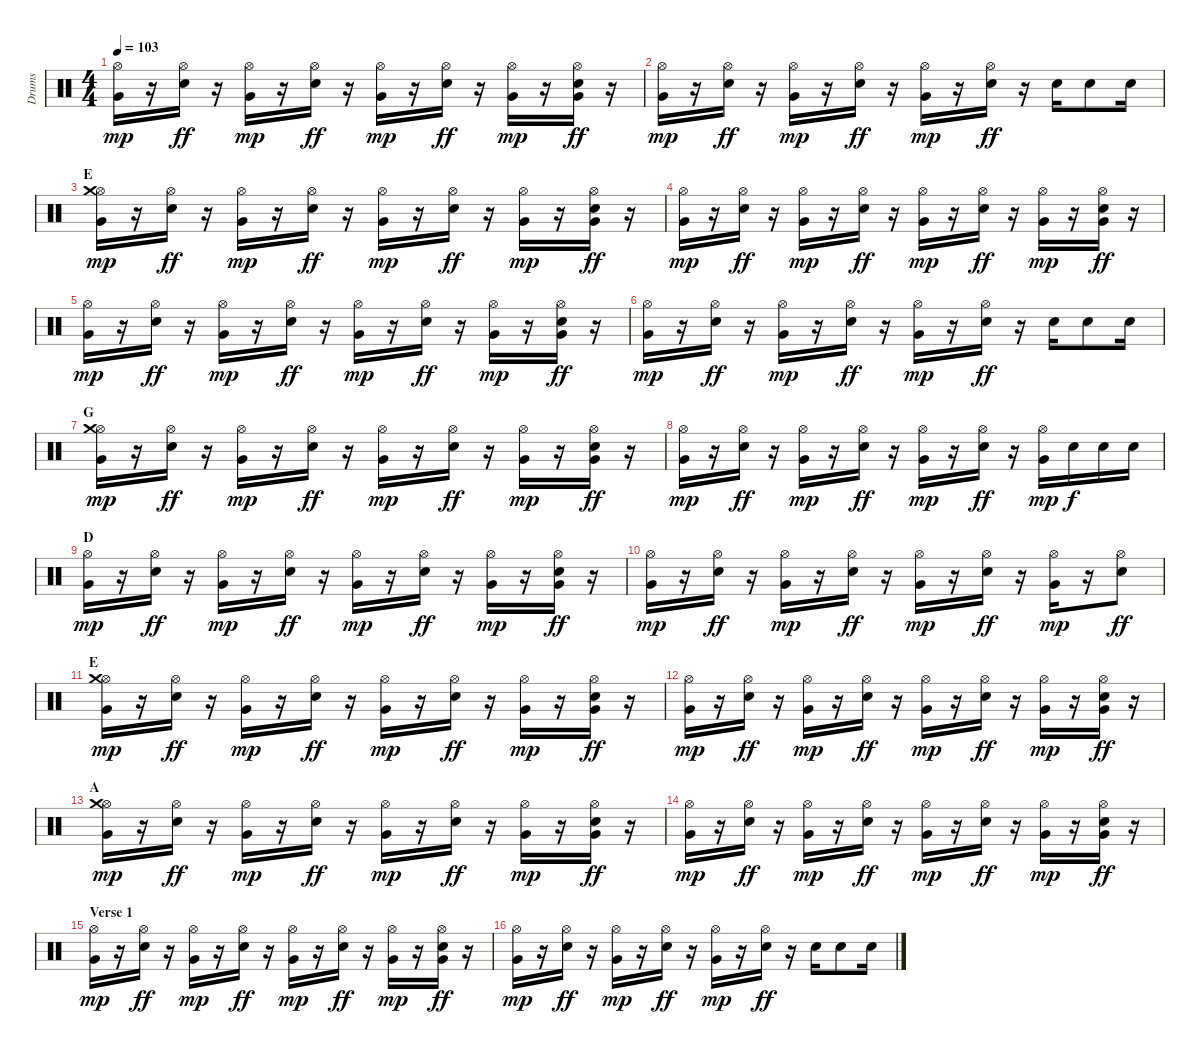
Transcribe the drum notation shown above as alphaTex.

\track ("Drums" "Drums") {instrument percussion}
\staff {score}
\articulation defaults
\ts (4 4)
\tempo 103
\clef neutral
\ks c
("Hi-Hat (open)" "Very Low Tom (hit)").16{dy mp} r.16 ("Hi-Hat (open)" "Electric Snare (hit)").16{dy ff} r.16 ("Hi-Hat (open)" "Very Low Tom (hit)").16{dy mp} r.16 ("Hi-Hat (open)" "Electric Snare (hit)").16{dy ff} r.16 ("Hi-Hat (open)" "Very Low Tom (hit)").16{dy mp} r.16 ("Hi-Hat (open)" "Electric Snare (hit)").16{dy ff} r.16 ("Hi-Hat (open)" "Very Low Tom (hit)").16{dy mp} r.16 ("Hi-Hat (open)" "Electric Snare (hit)" "Very Low Tom (hit)").16{dy ff} r.16 |
("Hi-Hat (open)" "Very Low Tom (hit)").16{dy mp} r.16 ("Hi-Hat (open)" "Electric Snare (hit)").16{dy ff} r.16 ("Hi-Hat (open)" "Very Low Tom (hit)").16{dy mp} r.16 ("Hi-Hat (open)" "Electric Snare (hit)").16{dy ff} r.16 ("Hi-Hat (open)" "Very Low Tom (hit)").16{dy mp} r.16 ("Hi-Hat (open)" "Electric Snare (hit)").16{dy ff} r.16 "Electric Snare (hit)".16 "Electric Snare (hit)".8 "Electric Snare (hit)".16 |
\section ("" "E")
("Hi-Hat (open)" "Crash medium (hit)" "Very Low Tom (hit)").16{dy mp} r.16 ("Hi-Hat (open)" "Electric Snare (hit)").16{dy ff} r.16 ("Hi-Hat (open)" "Very Low Tom (hit)").16{dy mp} r.16 ("Hi-Hat (open)" "Electric Snare (hit)").16{dy ff} r.16 ("Hi-Hat (open)" "Very Low Tom (hit)").16{dy mp} r.16 ("Hi-Hat (open)" "Electric Snare (hit)").16{dy ff} r.16 ("Hi-Hat (open)" "Very Low Tom (hit)").16{dy mp} r.16 ("Hi-Hat (open)" "Electric Snare (hit)" "Very Low Tom (hit)").16{dy ff} r.16 |
("Hi-Hat (open)" "Very Low Tom (hit)").16{dy mp} r.16 ("Hi-Hat (open)" "Electric Snare (hit)").16{dy ff} r.16 ("Hi-Hat (open)" "Very Low Tom (hit)").16{dy mp} r.16 ("Hi-Hat (open)" "Electric Snare (hit)").16{dy ff} r.16 ("Hi-Hat (open)" "Very Low Tom (hit)").16{dy mp} r.16 ("Hi-Hat (open)" "Electric Snare (hit)").16{dy ff} r.16 ("Hi-Hat (open)" "Very Low Tom (hit)").16{dy mp} r.16 ("Hi-Hat (open)" "Electric Snare (hit)" "Very Low Tom (hit)").16{dy ff} r.16 |
("Hi-Hat (open)" "Very Low Tom (hit)").16{dy mp} r.16 ("Hi-Hat (open)" "Electric Snare (hit)").16{dy ff} r.16 ("Hi-Hat (open)" "Very Low Tom (hit)").16{dy mp} r.16 ("Hi-Hat (open)" "Electric Snare (hit)").16{dy ff} r.16 ("Hi-Hat (open)" "Very Low Tom (hit)").16{dy mp} r.16 ("Hi-Hat (open)" "Electric Snare (hit)").16{dy ff} r.16 ("Hi-Hat (open)" "Very Low Tom (hit)").16{dy mp} r.16 ("Hi-Hat (open)" "Electric Snare (hit)" "Very Low Tom (hit)").16{dy ff} r.16 |
("Hi-Hat (open)" "Very Low Tom (hit)").16{dy mp} r.16 ("Hi-Hat (open)" "Electric Snare (hit)").16{dy ff} r.16 ("Hi-Hat (open)" "Very Low Tom (hit)").16{dy mp} r.16 ("Hi-Hat (open)" "Electric Snare (hit)").16{dy ff} r.16 ("Hi-Hat (open)" "Very Low Tom (hit)").16{dy mp} r.16 ("Hi-Hat (open)" "Electric Snare (hit)").16{dy ff} r.16 "Electric Snare (hit)".16 "Electric Snare (hit)".8 "Electric Snare (hit)".16 |
\section ("" "G")
("Hi-Hat (open)" "Crash medium (hit)" "Very Low Tom (hit)").16{dy mp} r.16 ("Hi-Hat (open)" "Electric Snare (hit)").16{dy ff} r.16 ("Hi-Hat (open)" "Very Low Tom (hit)").16{dy mp} r.16 ("Hi-Hat (open)" "Electric Snare (hit)").16{dy ff} r.16 ("Hi-Hat (open)" "Very Low Tom (hit)").16{dy mp} r.16 ("Hi-Hat (open)" "Electric Snare (hit)").16{dy ff} r.16 ("Hi-Hat (open)" "Very Low Tom (hit)").16{dy mp} r.16 ("Hi-Hat (open)" "Electric Snare (hit)" "Very Low Tom (hit)").16{dy ff} r.16 |
("Hi-Hat (open)" "Very Low Tom (hit)").16{dy mp} r.16 ("Hi-Hat (open)" "Electric Snare (hit)").16{dy ff} r.16 ("Hi-Hat (open)" "Very Low Tom (hit)").16{dy mp} r.16 ("Hi-Hat (open)" "Electric Snare (hit)").16{dy ff} r.16 ("Hi-Hat (open)" "Very Low Tom (hit)").16{dy mp} r.16 ("Hi-Hat (open)" "Electric Snare (hit)").16{dy ff} r.16 ("Hi-Hat (open)" "Very Low Tom (hit)").16{dy mp} "Electric Snare (hit)".16{dy f} "Electric Snare (hit)".16 "Electric Snare (hit)".16 |
\section ("" "D")
("Hi-Hat (open)" "Very Low Tom (hit)").16{dy mp} r.16 ("Hi-Hat (open)" "Electric Snare (hit)").16{dy ff} r.16 ("Hi-Hat (open)" "Very Low Tom (hit)").16{dy mp} r.16 ("Hi-Hat (open)" "Electric Snare (hit)").16{dy ff} r.16 ("Hi-Hat (open)" "Very Low Tom (hit)").16{dy mp} r.16 ("Hi-Hat (open)" "Electric Snare (hit)").16{dy ff} r.16 ("Hi-Hat (open)" "Very Low Tom (hit)").16{dy mp} r.16 ("Hi-Hat (open)" "Electric Snare (hit)" "Very Low Tom (hit)").16{dy ff} r.16 |
("Hi-Hat (open)" "Very Low Tom (hit)").16{dy mp} r.16 ("Hi-Hat (open)" "Electric Snare (hit)").16{dy ff} r.16 ("Hi-Hat (open)" "Very Low Tom (hit)").16{dy mp} r.16 ("Hi-Hat (open)" "Electric Snare (hit)").16{dy ff} r.16 ("Hi-Hat (open)" "Very Low Tom (hit)").16{dy mp} r.16 ("Hi-Hat (open)" "Electric Snare (hit)").16{dy ff} r.16 ("Hi-Hat (open)" "Very Low Tom (hit)").16{dy mp} r.16 ("Hi-Hat (open)" "Electric Snare (hit)").8{dy ff} |
\section ("" "E")
("Hi-Hat (open)" "Crash medium (hit)" "Very Low Tom (hit)").16{dy mp} r.16 ("Hi-Hat (open)" "Electric Snare (hit)").16{dy ff} r.16 ("Hi-Hat (open)" "Very Low Tom (hit)").16{dy mp} r.16 ("Hi-Hat (open)" "Electric Snare (hit)").16{dy ff} r.16 ("Hi-Hat (open)" "Very Low Tom (hit)").16{dy mp} r.16 ("Hi-Hat (open)" "Electric Snare (hit)").16{dy ff} r.16 ("Hi-Hat (open)" "Very Low Tom (hit)").16{dy mp} r.16 ("Hi-Hat (open)" "Electric Snare (hit)" "Very Low Tom (hit)").16{dy ff} r.16 |
("Hi-Hat (open)" "Very Low Tom (hit)").16{dy mp} r.16 ("Hi-Hat (open)" "Electric Snare (hit)").16{dy ff} r.16 ("Hi-Hat (open)" "Very Low Tom (hit)").16{dy mp} r.16 ("Hi-Hat (open)" "Electric Snare (hit)").16{dy ff} r.16 ("Hi-Hat (open)" "Very Low Tom (hit)").16{dy mp} r.16 ("Hi-Hat (open)" "Electric Snare (hit)").16{dy ff} r.16 ("Hi-Hat (open)" "Very Low Tom (hit)").16{dy mp} r.16 ("Hi-Hat (open)" "Electric Snare (hit)" "Very Low Tom (hit)").16{dy ff} r.16 |
\section ("" "A")
("Hi-Hat (open)" "Crash medium (hit)" "Very Low Tom (hit)").16{dy mp} r.16 ("Hi-Hat (open)" "Electric Snare (hit)").16{dy ff} r.16 ("Hi-Hat (open)" "Very Low Tom (hit)").16{dy mp} r.16 ("Hi-Hat (open)" "Electric Snare (hit)").16{dy ff} r.16 ("Hi-Hat (open)" "Very Low Tom (hit)").16{dy mp} r.16 ("Hi-Hat (open)" "Electric Snare (hit)").16{dy ff} r.16 ("Hi-Hat (open)" "Very Low Tom (hit)").16{dy mp} r.16 ("Hi-Hat (open)" "Electric Snare (hit)" "Very Low Tom (hit)").16{dy ff} r.16 |
("Hi-Hat (open)" "Very Low Tom (hit)").16{dy mp} r.16 ("Hi-Hat (open)" "Electric Snare (hit)").16{dy ff} r.16 ("Hi-Hat (open)" "Very Low Tom (hit)").16{dy mp} r.16 ("Hi-Hat (open)" "Electric Snare (hit)").16{dy ff} r.16 ("Hi-Hat (open)" "Very Low Tom (hit)").16{dy mp} r.16 ("Hi-Hat (open)" "Electric Snare (hit)").16{dy ff} r.16 ("Hi-Hat (open)" "Very Low Tom (hit)").16{dy mp} r.16 ("Hi-Hat (open)" "Electric Snare (hit)" "Very Low Tom (hit)").16{dy ff} r.16 |
\section ("" "Verse 1")
("Hi-Hat (open)" "Very Low Tom (hit)").16{dy mp} r.16 ("Hi-Hat (open)" "Electric Snare (hit)").16{dy ff} r.16 ("Hi-Hat (open)" "Very Low Tom (hit)").16{dy mp} r.16 ("Hi-Hat (open)" "Electric Snare (hit)").16{dy ff} r.16 ("Hi-Hat (open)" "Very Low Tom (hit)").16{dy mp} r.16 ("Hi-Hat (open)" "Electric Snare (hit)").16{dy ff} r.16 ("Hi-Hat (open)" "Very Low Tom (hit)").16{dy mp} r.16 ("Hi-Hat (open)" "Electric Snare (hit)" "Very Low Tom (hit)").16{dy ff} r.16 |
("Hi-Hat (open)" "Very Low Tom (hit)").16{dy mp} r.16 ("Hi-Hat (open)" "Electric Snare (hit)").16{dy ff} r.16 ("Hi-Hat (open)" "Very Low Tom (hit)").16{dy mp} r.16 ("Hi-Hat (open)" "Electric Snare (hit)").16{dy ff} r.16 ("Hi-Hat (open)" "Very Low Tom (hit)").16{dy mp} r.16 ("Hi-Hat (open)" "Electric Snare (hit)").16{dy ff} r.16 "Electric Snare (hit)".16 "Electric Snare (hit)".8 "Electric Snare (hit)".16
